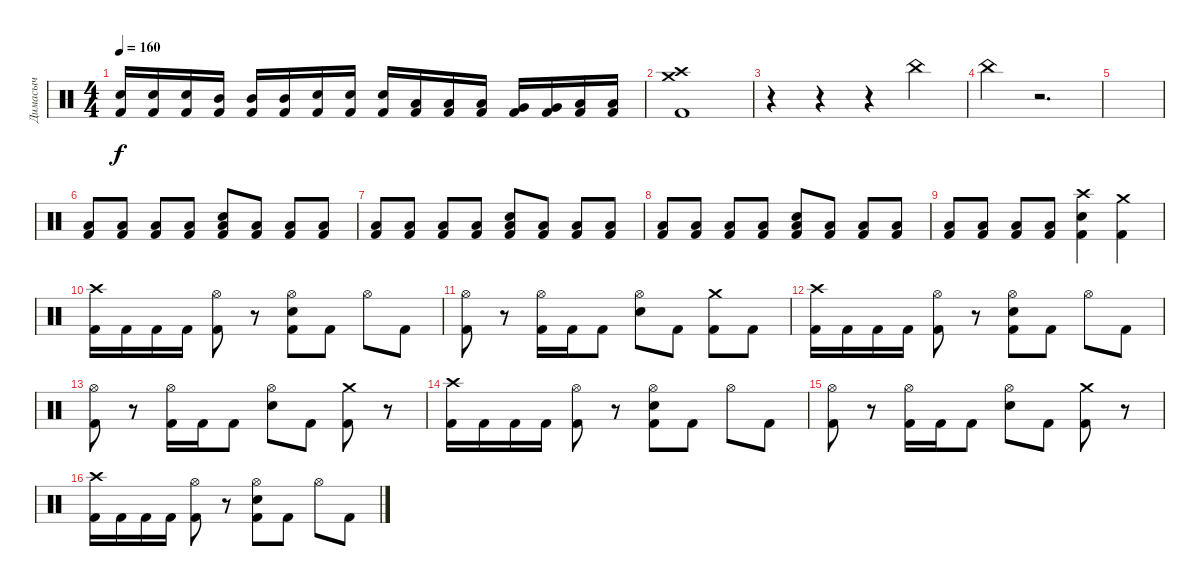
\track ("Димасыч" "Димасыч") {instrument percussion}
\staff {score}
\articulation defaults
\ts (4 4)
\tempo 160
\clef neutral
\ks c
("Electric Snare (hit)" "Kick (hit) 2").16{dy f} ("Electric Snare (hit)" "Kick (hit) 2").16 ("Electric Snare (hit)" "Kick (hit) 2").16 ("Mid Tom (hit)" "Kick (hit) 2").16 ("Mid Tom (hit)" "Kick (hit) 2").16 ("Mid Tom (hit)" "Kick (hit) 2").16 ("Electric Snare (hit)" "Kick (hit) 2").16 ("Electric Snare (hit)" "Kick (hit) 2").16 ("Electric Snare (hit)" "Kick (hit) 2").16 ("Low Tom (hit)" "Kick (hit) 2").16 ("Low Tom (hit)" "Kick (hit) 2").16 ("Low Tom (hit)" "Kick (hit) 2").16 ("Very Low Tom (hit)" "Kick (hit) 2").16 ("Very Low Tom (hit)" "Kick (hit) 2").16 ("Low Floor Tom (hit)" "Kick (hit) 2").16 ("Low Floor Tom (hit)" "Kick (hit) 2").16 |
("Crash high (hit)" "Crash medium (hit)" "Kick (hit) 2").1 |
r.4 r.4 r.4 "China (hit)".4 |
"China (hit)".4 r.2{d} |
|
("Low Floor Tom (hit)" "Kick (hit) 2").8 ("Low Floor Tom (hit)" "Kick (hit) 2").8 ("Low Floor Tom (hit)" "Kick (hit) 2").8 ("Low Floor Tom (hit)" "Kick (hit) 2").8 ("Electric Snare (hit)" "Low Floor Tom (hit)" "Kick (hit) 2").8 ("Low Floor Tom (hit)" "Kick (hit) 2").8 ("Low Floor Tom (hit)" "Kick (hit) 2").8 ("Low Floor Tom (hit)" "Kick (hit) 2").8 |
("Low Floor Tom (hit)" "Kick (hit) 2").8 ("Low Floor Tom (hit)" "Kick (hit) 2").8 ("Low Floor Tom (hit)" "Kick (hit) 2").8 ("Low Floor Tom (hit)" "Kick (hit) 2").8 ("Electric Snare (hit)" "Low Floor Tom (hit)" "Kick (hit) 2").8 ("Low Floor Tom (hit)" "Kick (hit) 2").8 ("Low Floor Tom (hit)" "Kick (hit) 2").8 ("Low Floor Tom (hit)" "Kick (hit) 2").8 |
("Low Floor Tom (hit)" "Kick (hit) 2").8 ("Low Floor Tom (hit)" "Kick (hit) 2").8 ("Low Floor Tom (hit)" "Kick (hit) 2").8 ("Low Floor Tom (hit)" "Kick (hit) 2").8 ("Electric Snare (hit)" "Low Floor Tom (hit)" "Kick (hit) 2").8 ("Low Floor Tom (hit)" "Kick (hit) 2").8 ("Low Floor Tom (hit)" "Kick (hit) 2").8 ("Low Floor Tom (hit)" "Kick (hit) 2").8 |
("Low Floor Tom (hit)" "Kick (hit) 2").8 ("Low Floor Tom (hit)" "Kick (hit) 2").8 ("Low Floor Tom (hit)" "Kick (hit) 2").8 ("Low Floor Tom (hit)" "Kick (hit) 2").8 ("Crash high (hit)" "Electric Snare (hit)" "Kick (hit) 2").4 ("Crash medium (hit)" "Kick (hit) 2").4 |
("Crash high (hit)" "Kick (hit) 2").16 "Kick (hit) 2".16 "Kick (hit) 2".16 "Kick (hit) 2".16 ("Hi-Hat (open)" "Kick (hit) 2").8 r.8 ("Hi-Hat (open)" "Electric Snare (hit)" "Kick (hit) 2").8 "Kick (hit) 2".8 "Hi-Hat (open)".8 "Kick (hit) 2".8 |
("Hi-Hat (open)" "Kick (hit) 2").8 r.8 ("Hi-Hat (open)" "Kick (hit) 2").16 "Kick (hit) 2".16 "Kick (hit) 2".8 ("Hi-Hat (open)" "Electric Snare (hit)").8 "Kick (hit) 2".8 ("Crash medium (hit)" "Kick (hit) 2").8 "Kick (hit) 2".8 |
("Crash high (hit)" "Kick (hit) 2").16 "Kick (hit) 2".16 "Kick (hit) 2".16 "Kick (hit) 2".16 ("Hi-Hat (open)" "Kick (hit) 2").8 r.8 ("Hi-Hat (open)" "Electric Snare (hit)" "Kick (hit) 2").8 "Kick (hit) 2".8 "Hi-Hat (open)".8 "Kick (hit) 2".8 |
("Hi-Hat (open)" "Kick (hit) 2").8 r.8 ("Hi-Hat (open)" "Kick (hit) 2").16 "Kick (hit) 2".16 "Kick (hit) 2".8 ("Hi-Hat (open)" "Electric Snare (hit)").8 "Kick (hit) 2".8 ("Crash medium (hit)" "Kick (hit) 2").8 r.8 |
("Crash high (hit)" "Kick (hit) 2").16 "Kick (hit) 2".16 "Kick (hit) 2".16 "Kick (hit) 2".16 ("Hi-Hat (open)" "Kick (hit) 2").8 r.8 ("Hi-Hat (open)" "Electric Snare (hit)" "Kick (hit) 2").8 "Kick (hit) 2".8 "Hi-Hat (open)".8 "Kick (hit) 2".8 |
("Hi-Hat (open)" "Kick (hit) 2").8 r.8 ("Hi-Hat (open)" "Kick (hit) 2").16 "Kick (hit) 2".16 "Kick (hit) 2".8 ("Hi-Hat (open)" "Electric Snare (hit)").8 "Kick (hit) 2".8 ("Crash medium (hit)" "Kick (hit) 2").8 r.8 |
("Crash high (hit)" "Kick (hit) 2").16 "Kick (hit) 2".16 "Kick (hit) 2".16 "Kick (hit) 2".16 ("Hi-Hat (open)" "Kick (hit) 2").8 r.8 ("Hi-Hat (open)" "Electric Snare (hit)" "Kick (hit) 2").8 "Kick (hit) 2".8 "Hi-Hat (open)".8 "Kick (hit) 2".8
